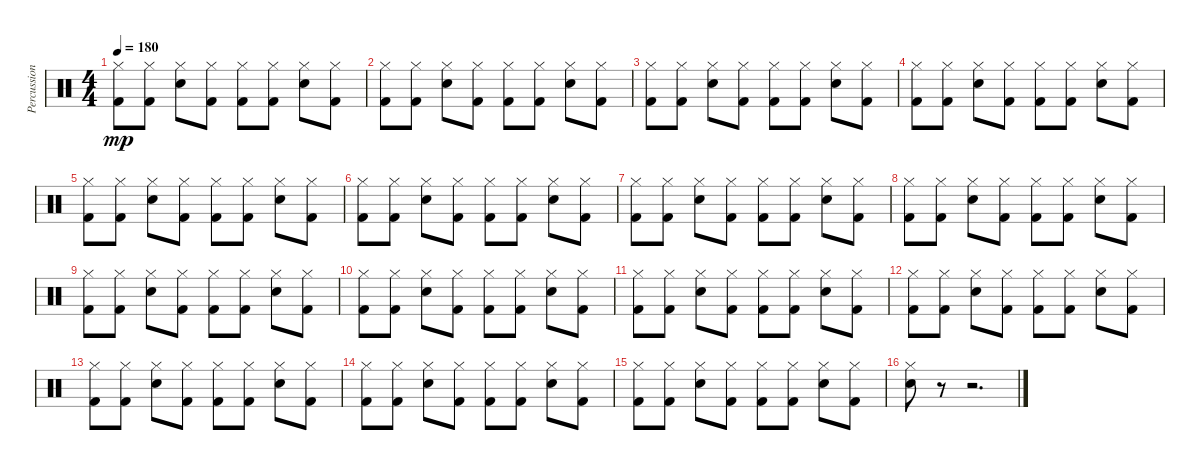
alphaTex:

\track ("Percussion" "Percussion") {instrument percussion}
\staff {score}
\articulation defaults
\ts (4 4)
\tempo 180
\clef neutral
\ks c
("Hi-Hat (closed)" "Kick (hit) 2").8{dy mp} ("Hi-Hat (closed)" "Kick (hit) 2").8 ("Hi-Hat (closed)" "Snare (hit) 2").8 ("Hi-Hat (closed)" "Kick (hit) 2").8 ("Hi-Hat (closed)" "Kick (hit) 2").8 ("Hi-Hat (closed)" "Kick (hit) 2").8 ("Hi-Hat (closed)" "Snare (hit) 2").8 ("Hi-Hat (closed)" "Kick (hit) 2").8 |
("Hi-Hat (closed)" "Kick (hit) 2").8 ("Hi-Hat (closed)" "Kick (hit) 2").8 ("Hi-Hat (closed)" "Snare (hit) 2").8 ("Hi-Hat (closed)" "Kick (hit) 2").8 ("Hi-Hat (closed)" "Kick (hit) 2").8 ("Hi-Hat (closed)" "Kick (hit) 2").8 ("Hi-Hat (closed)" "Snare (hit) 2").8 ("Hi-Hat (closed)" "Kick (hit) 2").8 |
("Hi-Hat (closed)" "Kick (hit) 2").8 ("Hi-Hat (closed)" "Kick (hit) 2").8 ("Hi-Hat (closed)" "Snare (hit) 2").8 ("Hi-Hat (closed)" "Kick (hit) 2").8 ("Hi-Hat (closed)" "Kick (hit) 2").8 ("Hi-Hat (closed)" "Kick (hit) 2").8 ("Hi-Hat (closed)" "Snare (hit) 2").8 ("Hi-Hat (closed)" "Kick (hit) 2").8 |
("Hi-Hat (closed)" "Kick (hit) 2").8 ("Hi-Hat (closed)" "Kick (hit) 2").8 ("Hi-Hat (closed)" "Snare (hit) 2").8 ("Hi-Hat (closed)" "Kick (hit) 2").8 ("Hi-Hat (closed)" "Kick (hit) 2").8 ("Hi-Hat (closed)" "Kick (hit) 2").8 ("Hi-Hat (closed)" "Snare (hit) 2").8 ("Hi-Hat (closed)" "Kick (hit) 2").8 |
("Hi-Hat (closed)" "Kick (hit) 2").8 ("Hi-Hat (closed)" "Kick (hit) 2").8 ("Hi-Hat (closed)" "Snare (hit) 2").8 ("Hi-Hat (closed)" "Kick (hit) 2").8 ("Hi-Hat (closed)" "Kick (hit) 2").8 ("Hi-Hat (closed)" "Kick (hit) 2").8 ("Hi-Hat (closed)" "Snare (hit) 2").8 ("Hi-Hat (closed)" "Kick (hit) 2").8 |
("Hi-Hat (closed)" "Kick (hit) 2").8 ("Hi-Hat (closed)" "Kick (hit) 2").8 ("Hi-Hat (closed)" "Snare (hit) 2").8 ("Hi-Hat (closed)" "Kick (hit) 2").8 ("Hi-Hat (closed)" "Kick (hit) 2").8 ("Hi-Hat (closed)" "Kick (hit) 2").8 ("Hi-Hat (closed)" "Snare (hit) 2").8 ("Hi-Hat (closed)" "Kick (hit) 2").8 |
("Hi-Hat (closed)" "Kick (hit) 2").8 ("Hi-Hat (closed)" "Kick (hit) 2").8 ("Hi-Hat (closed)" "Snare (hit) 2").8 ("Hi-Hat (closed)" "Kick (hit) 2").8 ("Hi-Hat (closed)" "Kick (hit) 2").8 ("Hi-Hat (closed)" "Kick (hit) 2").8 ("Hi-Hat (closed)" "Snare (hit) 2").8 ("Hi-Hat (closed)" "Kick (hit) 2").8 |
("Hi-Hat (closed)" "Kick (hit) 2").8 ("Hi-Hat (closed)" "Kick (hit) 2").8 ("Hi-Hat (closed)" "Snare (hit) 2").8 ("Hi-Hat (closed)" "Kick (hit) 2").8 ("Hi-Hat (closed)" "Kick (hit) 2").8 ("Hi-Hat (closed)" "Kick (hit) 2").8 ("Hi-Hat (closed)" "Snare (hit) 2").8 ("Hi-Hat (closed)" "Kick (hit) 2").8 |
("Hi-Hat (closed)" "Kick (hit) 2").8 ("Hi-Hat (closed)" "Kick (hit) 2").8 ("Hi-Hat (closed)" "Snare (hit) 2").8 ("Hi-Hat (closed)" "Kick (hit) 2").8 ("Hi-Hat (closed)" "Kick (hit) 2").8 ("Hi-Hat (closed)" "Kick (hit) 2").8 ("Hi-Hat (closed)" "Snare (hit) 2").8 ("Hi-Hat (closed)" "Kick (hit) 2").8 |
("Hi-Hat (closed)" "Kick (hit) 2").8 ("Hi-Hat (closed)" "Kick (hit) 2").8 ("Hi-Hat (closed)" "Snare (hit) 2").8 ("Hi-Hat (closed)" "Kick (hit) 2").8 ("Hi-Hat (closed)" "Kick (hit) 2").8 ("Hi-Hat (closed)" "Kick (hit) 2").8 ("Hi-Hat (closed)" "Snare (hit) 2").8 ("Hi-Hat (closed)" "Kick (hit) 2").8 |
("Hi-Hat (closed)" "Kick (hit) 2").8 ("Hi-Hat (closed)" "Kick (hit) 2").8 ("Hi-Hat (closed)" "Snare (hit) 2").8 ("Hi-Hat (closed)" "Kick (hit) 2").8 ("Hi-Hat (closed)" "Kick (hit) 2").8 ("Hi-Hat (closed)" "Kick (hit) 2").8 ("Hi-Hat (closed)" "Snare (hit) 2").8 ("Hi-Hat (closed)" "Kick (hit) 2").8 |
("Hi-Hat (closed)" "Kick (hit) 2").8 ("Hi-Hat (closed)" "Kick (hit) 2").8 ("Hi-Hat (closed)" "Snare (hit) 2").8 ("Hi-Hat (closed)" "Kick (hit) 2").8 ("Hi-Hat (closed)" "Kick (hit) 2").8 ("Hi-Hat (closed)" "Kick (hit) 2").8 ("Hi-Hat (closed)" "Snare (hit) 2").8 ("Hi-Hat (closed)" "Kick (hit) 2").8 |
("Hi-Hat (closed)" "Kick (hit) 2").8 ("Hi-Hat (closed)" "Kick (hit) 2").8 ("Hi-Hat (closed)" "Snare (hit) 2").8 ("Hi-Hat (closed)" "Kick (hit) 2").8 ("Hi-Hat (closed)" "Kick (hit) 2").8 ("Hi-Hat (closed)" "Kick (hit) 2").8 ("Hi-Hat (closed)" "Snare (hit) 2").8 ("Hi-Hat (closed)" "Kick (hit) 2").8 |
("Hi-Hat (closed)" "Kick (hit) 2").8 ("Hi-Hat (closed)" "Kick (hit) 2").8 ("Hi-Hat (closed)" "Snare (hit) 2").8 ("Hi-Hat (closed)" "Kick (hit) 2").8 ("Hi-Hat (closed)" "Kick (hit) 2").8 ("Hi-Hat (closed)" "Kick (hit) 2").8 ("Hi-Hat (closed)" "Snare (hit) 2").8 ("Hi-Hat (closed)" "Kick (hit) 2").8 |
("Hi-Hat (closed)" "Kick (hit) 2").8 ("Hi-Hat (closed)" "Kick (hit) 2").8 ("Hi-Hat (closed)" "Snare (hit) 2").8 ("Hi-Hat (closed)" "Kick (hit) 2").8 ("Hi-Hat (closed)" "Kick (hit) 2").8 ("Hi-Hat (closed)" "Kick (hit) 2").8 ("Hi-Hat (closed)" "Snare (hit) 2").8 ("Hi-Hat (closed)" "Kick (hit) 2").8 |
("Hi-Hat (closed)" "Snare (hit) 2").8 r.8 r.2{d}
